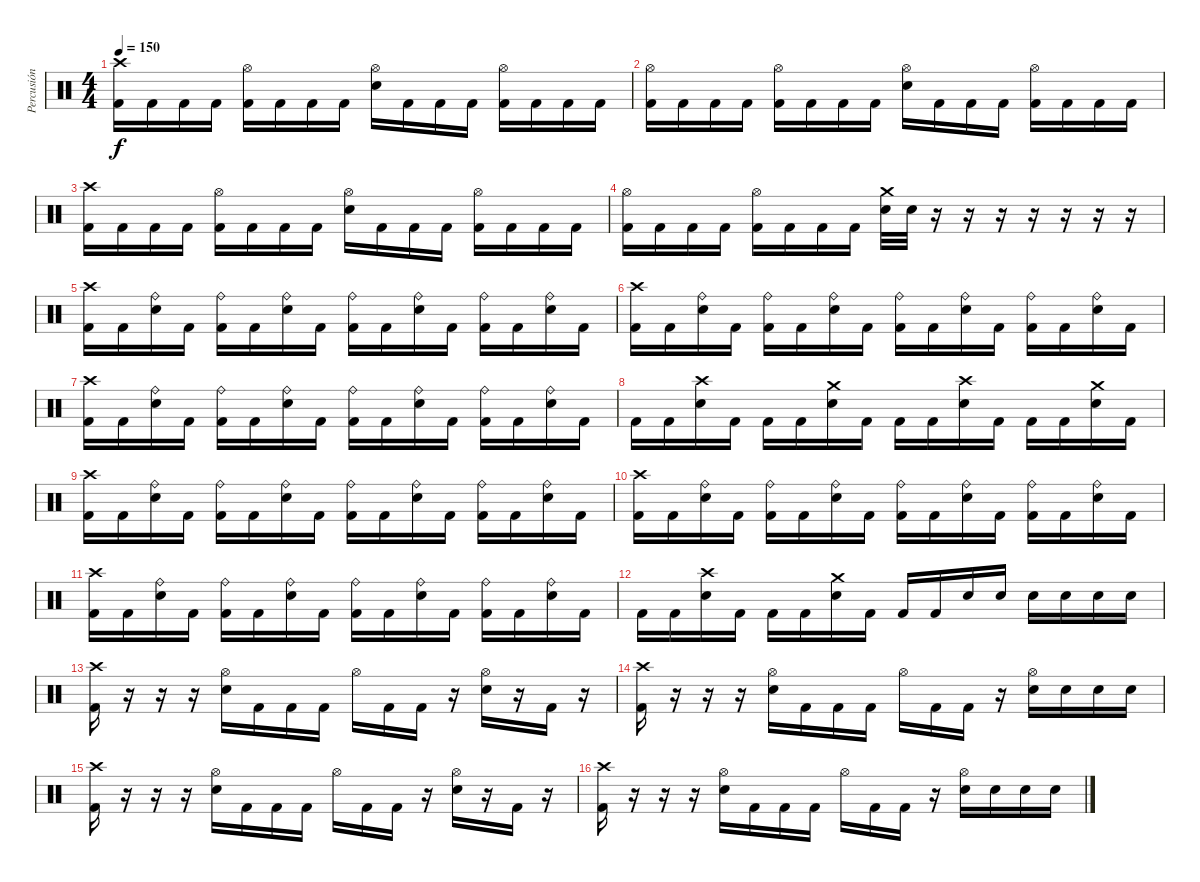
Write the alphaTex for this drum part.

\track ("Percusión" "Percusión") {instrument percussion}
\staff {score}
\articulation defaults
\ts (4 4)
\tempo 150
\clef neutral
\ks c
("Crash high (hit)" "Kick (hit) 2").16{dy f} "Kick (hit) 2".16 "Kick (hit) 2".16 "Kick (hit) 2".16 ("Hi-Hat (open)" "Kick (hit) 2").16 "Kick (hit) 2".16 "Kick (hit) 2".16 "Kick (hit) 2".16 ("Hi-Hat (open)" "Electric Snare (hit)").16 "Kick (hit) 2".16 "Kick (hit) 2".16 "Kick (hit) 2".16 ("Hi-Hat (open)" "Kick (hit) 2").16 "Kick (hit) 2".16 "Kick (hit) 2".16 "Kick (hit) 2".16 |
("Hi-Hat (open)" "Kick (hit) 2").16 "Kick (hit) 2".16 "Kick (hit) 2".16 "Kick (hit) 2".16 ("Hi-Hat (open)" "Kick (hit) 2").16 "Kick (hit) 2".16 "Kick (hit) 2".16 "Kick (hit) 2".16 ("Hi-Hat (open)" "Electric Snare (hit)").16 "Kick (hit) 2".16 "Kick (hit) 2".16 "Kick (hit) 2".16 ("Hi-Hat (open)" "Kick (hit) 2").16 "Kick (hit) 2".16 "Kick (hit) 2".16 "Kick (hit) 2".16 |
("Crash high (hit)" "Kick (hit) 2").16 "Kick (hit) 2".16 "Kick (hit) 2".16 "Kick (hit) 2".16 ("Hi-Hat (open)" "Kick (hit) 2").16 "Kick (hit) 2".16 "Kick (hit) 2".16 "Kick (hit) 2".16 ("Hi-Hat (open)" "Electric Snare (hit)").16 "Kick (hit) 2".16 "Kick (hit) 2".16 "Kick (hit) 2".16 ("Hi-Hat (open)" "Kick (hit) 2").16 "Kick (hit) 2".16 "Kick (hit) 2".16 "Kick (hit) 2".16 |
("Hi-Hat (open)" "Kick (hit) 2").16 "Kick (hit) 2".16 "Kick (hit) 2".16 "Kick (hit) 2".16 ("Hi-Hat (open)" "Kick (hit) 2").16 "Kick (hit) 2".16 "Kick (hit) 2".16 "Kick (hit) 2".16 ("Crash medium (hit)" "Electric Snare (hit)").32 "Electric Snare (hit)".32 r.16 r.16 r.16 r.16 r.16 r.16 r.16 |
("Crash high (hit)" "Kick (hit) 2").16 "Kick (hit) 2".16 ("Ride (bell)" "Electric Snare (hit)").16 "Kick (hit) 2".16 ("Ride (bell)" "Kick (hit) 2").16 "Kick (hit) 2".16 ("Ride (bell)" "Electric Snare (hit)").16 "Kick (hit) 2".16 ("Ride (bell)" "Kick (hit) 2").16 "Kick (hit) 2".16 ("Ride (bell)" "Electric Snare (hit)").16 "Kick (hit) 2".16 ("Ride (bell)" "Kick (hit) 2").16 "Kick (hit) 2".16 ("Ride (bell)" "Electric Snare (hit)").16 "Kick (hit) 2".16 |
("Crash high (hit)" "Kick (hit) 2").16 "Kick (hit) 2".16 ("Ride (bell)" "Electric Snare (hit)").16 "Kick (hit) 2".16 ("Ride (bell)" "Kick (hit) 2").16 "Kick (hit) 2".16 ("Ride (bell)" "Electric Snare (hit)").16 "Kick (hit) 2".16 ("Ride (bell)" "Kick (hit) 2").16 "Kick (hit) 2".16 ("Ride (bell)" "Electric Snare (hit)").16 "Kick (hit) 2".16 ("Ride (bell)" "Kick (hit) 2").16 "Kick (hit) 2".16 ("Ride (bell)" "Electric Snare (hit)").16 "Kick (hit) 2".16 |
("Crash high (hit)" "Kick (hit) 2").16 "Kick (hit) 2".16 ("Ride (bell)" "Electric Snare (hit)").16 "Kick (hit) 2".16 ("Ride (bell)" "Kick (hit) 2").16 "Kick (hit) 2".16 ("Ride (bell)" "Electric Snare (hit)").16 "Kick (hit) 2".16 ("Ride (bell)" "Kick (hit) 2").16 "Kick (hit) 2".16 ("Ride (bell)" "Electric Snare (hit)").16 "Kick (hit) 2".16 ("Ride (bell)" "Kick (hit) 2").16 "Kick (hit) 2".16 ("Ride (bell)" "Electric Snare (hit)").16 "Kick (hit) 2".16 |
"Kick (hit) 2".16 "Kick (hit) 2".16 ("Crash high (hit)" "Electric Snare (hit)").16 "Kick (hit) 2".16 "Kick (hit) 2".16 "Kick (hit) 2".16 ("Crash medium (hit)" "Electric Snare (hit)").16 "Kick (hit) 2".16 "Kick (hit) 2".16 "Kick (hit) 2".16 ("Crash high (hit)" "Electric Snare (hit)").16 "Kick (hit) 2".16 "Kick (hit) 2".16 "Kick (hit) 2".16 ("Crash medium (hit)" "Electric Snare (hit)").16 "Kick (hit) 2".16 |
("Crash high (hit)" "Kick (hit) 2").16 "Kick (hit) 2".16 ("Ride (bell)" "Electric Snare (hit)").16 "Kick (hit) 2".16 ("Ride (bell)" "Kick (hit) 2").16 "Kick (hit) 2".16 ("Ride (bell)" "Electric Snare (hit)").16 "Kick (hit) 2".16 ("Ride (bell)" "Kick (hit) 2").16 "Kick (hit) 2".16 ("Ride (bell)" "Electric Snare (hit)").16 "Kick (hit) 2".16 ("Ride (bell)" "Kick (hit) 2").16 "Kick (hit) 2".16 ("Ride (bell)" "Electric Snare (hit)").16 "Kick (hit) 2".16 |
("Crash high (hit)" "Kick (hit) 2").16 "Kick (hit) 2".16 ("Ride (bell)" "Electric Snare (hit)").16 "Kick (hit) 2".16 ("Ride (bell)" "Kick (hit) 2").16 "Kick (hit) 2".16 ("Ride (bell)" "Electric Snare (hit)").16 "Kick (hit) 2".16 ("Ride (bell)" "Kick (hit) 2").16 "Kick (hit) 2".16 ("Ride (bell)" "Electric Snare (hit)").16 "Kick (hit) 2".16 ("Ride (bell)" "Kick (hit) 2").16 "Kick (hit) 2".16 ("Ride (bell)" "Electric Snare (hit)").16 "Kick (hit) 2".16 |
("Crash high (hit)" "Kick (hit) 2").16 "Kick (hit) 2".16 ("Ride (bell)" "Electric Snare (hit)").16 "Kick (hit) 2".16 ("Ride (bell)" "Kick (hit) 2").16 "Kick (hit) 2".16 ("Ride (bell)" "Electric Snare (hit)").16 "Kick (hit) 2".16 ("Ride (bell)" "Kick (hit) 2").16 "Kick (hit) 2".16 ("Ride (bell)" "Electric Snare (hit)").16 "Kick (hit) 2".16 ("Ride (bell)" "Kick (hit) 2").16 "Kick (hit) 2".16 ("Ride (bell)" "Electric Snare (hit)").16 "Kick (hit) 2".16 |
"Kick (hit) 2".16 "Kick (hit) 2".16 ("Crash high (hit)" "Electric Snare (hit)").16 "Kick (hit) 2".16 "Kick (hit) 2".16 "Kick (hit) 2".16 ("Crash medium (hit)" "Electric Snare (hit)").16 "Kick (hit) 2".16 "Kick (hit) 2".16 "Kick (hit) 2".16 "Electric Snare (hit)".16 "Electric Snare (hit)".16 "Electric Snare (hit)".16 "Electric Snare (hit)".16 "Electric Snare (hit)".16 "Electric Snare (hit)".16 |
("Crash high (hit)" "Kick (hit) 2").16 r.16 r.16 r.16 ("Hi-Hat (open)" "Electric Snare (hit)").16 "Kick (hit) 2".16 "Kick (hit) 2".16 "Kick (hit) 2".16 "Hi-Hat (open)".16 "Kick (hit) 2".16 "Kick (hit) 2".16 r.16 ("Hi-Hat (open)" "Electric Snare (hit)").16 r.16 "Kick (hit) 2".16 r.16 |
("Crash high (hit)" "Kick (hit) 2").16 r.16 r.16 r.16 ("Hi-Hat (open)" "Electric Snare (hit)").16 "Kick (hit) 2".16 "Kick (hit) 2".16 "Kick (hit) 2".16 "Hi-Hat (open)".16 "Kick (hit) 2".16 "Kick (hit) 2".16 r.16 ("Hi-Hat (open)" "Electric Snare (hit)").16 "Electric Snare (hit)".16 "Electric Snare (hit)".16 "Electric Snare (hit)".16 |
("Crash high (hit)" "Kick (hit) 2").16 r.16 r.16 r.16 ("Hi-Hat (open)" "Electric Snare (hit)").16 "Kick (hit) 2".16 "Kick (hit) 2".16 "Kick (hit) 2".16 "Hi-Hat (open)".16 "Kick (hit) 2".16 "Kick (hit) 2".16 r.16 ("Hi-Hat (open)" "Electric Snare (hit)").16 r.16 "Kick (hit) 2".16 r.16 |
("Crash high (hit)" "Kick (hit) 2").16 r.16 r.16 r.16 ("Hi-Hat (open)" "Electric Snare (hit)").16 "Kick (hit) 2".16 "Kick (hit) 2".16 "Kick (hit) 2".16 "Hi-Hat (open)".16 "Kick (hit) 2".16 "Kick (hit) 2".16 r.16 ("Hi-Hat (open)" "Electric Snare (hit)").16 "Electric Snare (hit)".16 "Electric Snare (hit)".16 "Electric Snare (hit)".16
